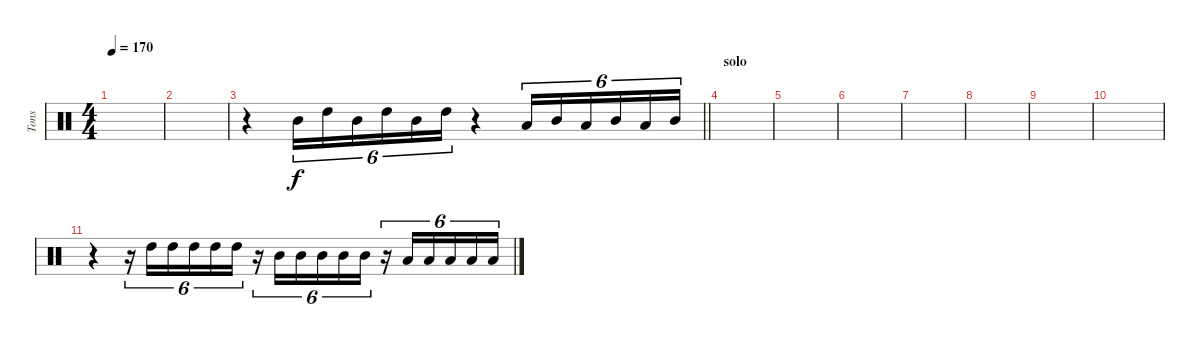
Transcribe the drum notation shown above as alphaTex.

\track ("Tons" "Tons") {instrument percussion}
\staff {score}
\articulation defaults
\ts (4 4)
\tempo 170
\clef neutral
\ks c
|
|
\barLineRight lightlight
r.4 "Mid Tom (hit)".16{tu (6 4)} "High Tom (hit)".16{tu (6 4)} "Mid Tom (hit)".16{tu (6 4)} "High Tom (hit)".16{tu (6 4)} "Mid Tom (hit)".16{tu (6 4)} "High Tom (hit)".16{tu (6 4)} r.4 "Low Tom (hit)".16{tu (6 4)} "Mid Tom (hit)".16{tu (6 4)} "Low Tom (hit)".16{tu (6 4)} "Mid Tom (hit)".16{tu (6 4)} "Low Tom (hit)".16{tu (6 4)} "Mid Tom (hit)".16{tu (6 4)} |
\section ("" "solo")
|
|
|
|
|
|
|
r.4 r.16{tu (6 4)} "High Tom (hit)".16{tu (6 4)} "High Tom (hit)".16{tu (6 4)} "High Tom (hit)".16{tu (6 4)} "High Tom (hit)".16{tu (6 4)} "High Tom (hit)".16{tu (6 4)} r.16{tu (6 4)} "Mid Tom (hit)".16{tu (6 4)} "Mid Tom (hit)".16{tu (6 4)} "Mid Tom (hit)".16{tu (6 4)} "Mid Tom (hit)".16{tu (6 4)} "Mid Tom (hit)".16{tu (6 4)} r.16{tu (6 4)} "Low Tom (hit)".16{tu (6 4)} "Low Tom (hit)".16{tu (6 4)} "Low Tom (hit)".16{tu (6 4)} "Low Tom (hit)".16{tu (6 4)} "Low Tom (hit)".16{tu (6 4)}
